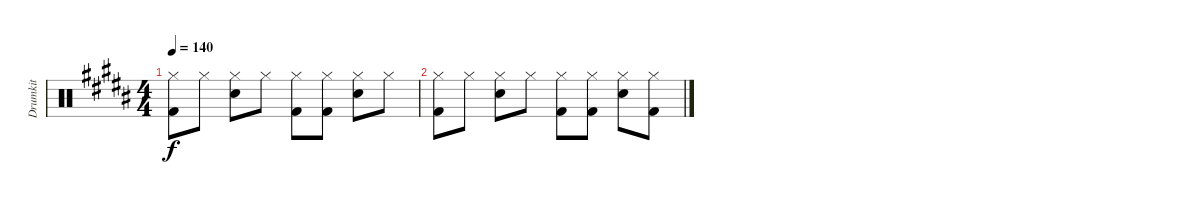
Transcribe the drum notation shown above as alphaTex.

\track ("Drumkit" "Drumkit") {instrument percussion}
\staff {score}
\articulation defaults
\ts (4 4)
\tempo 140
\clef neutral
\ks b
("Hi-Hat (closed)" "Kick (hit) 2").8{dy f} "Hi-Hat (closed)".8 ("Hi-Hat (closed)" "Snare (hit) 2").8 "Hi-Hat (closed)".8 ("Hi-Hat (closed)" "Kick (hit) 2").8 ("Hi-Hat (closed)" "Kick (hit) 2").8 ("Hi-Hat (closed)" "Snare (hit) 2").8 "Hi-Hat (closed)".8 |
("Hi-Hat (closed)" "Kick (hit) 2").8 "Hi-Hat (closed)".8 ("Hi-Hat (closed)" "Snare (hit) 2").8 "Hi-Hat (closed)".8 ("Hi-Hat (closed)" "Kick (hit) 2").8 ("Hi-Hat (closed)" "Kick (hit) 2").8 ("Hi-Hat (closed)" "Snare (hit) 2").8 ("Hi-Hat (closed)" "Kick (hit) 2").8
